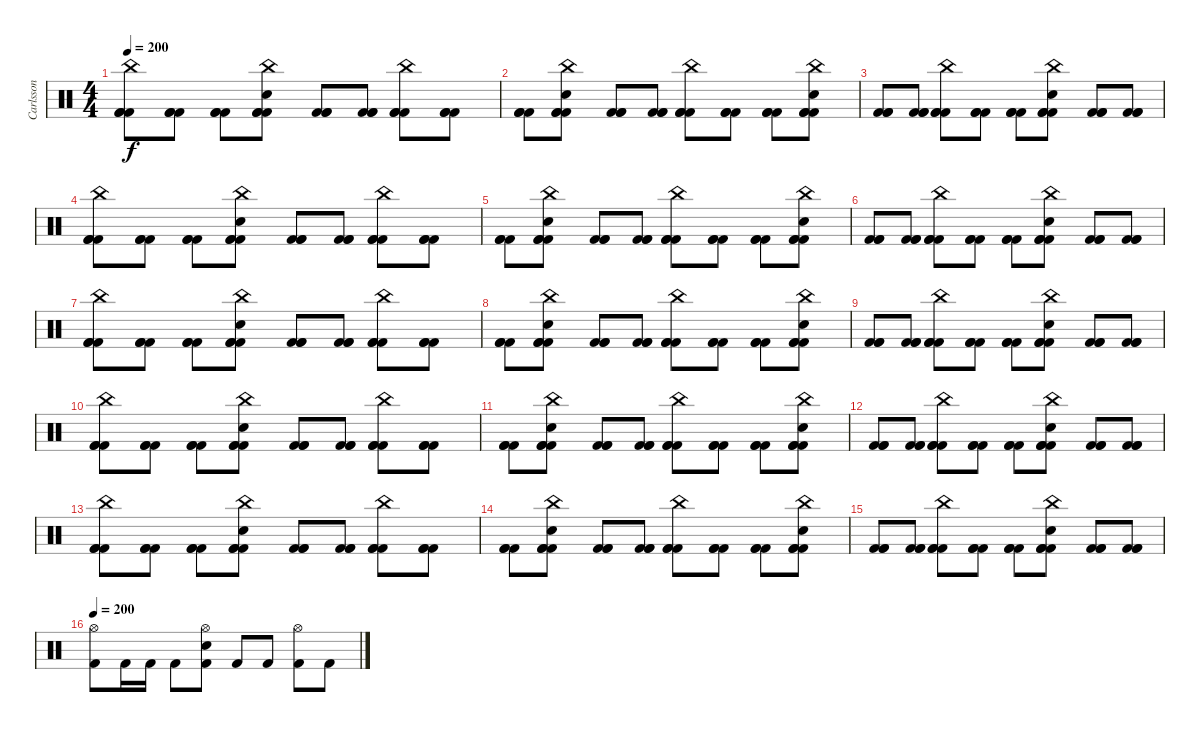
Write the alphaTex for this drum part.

\track ("Carlsson" "Carlsson") {instrument percussion}
\staff {score}
\articulation defaults
\ts (4 4)
\tempo 200
\clef neutral
\ks c
("China (hit)" "Kick (hit) 2" "Kick (hit) 2" "Kick (hit) 2").8{dy f} ("Kick (hit) 2" "Kick (hit) 2" "Kick (hit) 2").8 ("Kick (hit) 2" "Kick (hit) 2" "Kick (hit) 2").8 ("China (hit)" "Snare (hit) 2" "Kick (hit) 2" "Kick (hit) 2" "Kick (hit) 2").8 ("Kick (hit) 2" "Kick (hit) 2" "Kick (hit) 2").8 ("Kick (hit) 2" "Kick (hit) 2" "Kick (hit) 2").8 ("China (hit)" "Kick (hit) 2" "Kick (hit) 2" "Kick (hit) 2").8 ("Kick (hit) 2" "Kick (hit) 2" "Kick (hit) 2").8 |
("Kick (hit) 2" "Kick (hit) 2" "Kick (hit) 2").8 ("China (hit)" "Snare (hit) 2" "Kick (hit) 2" "Kick (hit) 2" "Kick (hit) 2").8 ("Kick (hit) 2" "Kick (hit) 2" "Kick (hit) 2").8 ("Kick (hit) 2" "Kick (hit) 2" "Kick (hit) 2").8 ("China (hit)" "Kick (hit) 2" "Kick (hit) 2" "Kick (hit) 2").8 ("Kick (hit) 2" "Kick (hit) 2" "Kick (hit) 2").8 ("Kick (hit) 2" "Kick (hit) 2" "Kick (hit) 2").8 ("China (hit)" "Snare (hit) 2" "Kick (hit) 2" "Kick (hit) 2" "Kick (hit) 2").8 |
("Kick (hit) 2" "Kick (hit) 2" "Kick (hit) 2").8 ("Kick (hit) 2" "Kick (hit) 2" "Kick (hit) 2").8 ("China (hit)" "Kick (hit) 2" "Kick (hit) 2" "Kick (hit) 2").8 ("Kick (hit) 2" "Kick (hit) 2" "Kick (hit) 2").8 ("Kick (hit) 2" "Kick (hit) 2" "Kick (hit) 2").8 ("China (hit)" "Snare (hit) 2" "Kick (hit) 2" "Kick (hit) 2" "Kick (hit) 2").8 ("Kick (hit) 2" "Kick (hit) 2" "Kick (hit) 2").8 ("Kick (hit) 2" "Kick (hit) 2" "Kick (hit) 2").8 |
("China (hit)" "Kick (hit) 2" "Kick (hit) 2" "Kick (hit) 2").8 ("Kick (hit) 2" "Kick (hit) 2" "Kick (hit) 2").8 ("Kick (hit) 2" "Kick (hit) 2" "Kick (hit) 2").8 ("China (hit)" "Snare (hit) 2" "Kick (hit) 2" "Kick (hit) 2" "Kick (hit) 2").8 ("Kick (hit) 2" "Kick (hit) 2" "Kick (hit) 2").8 ("Kick (hit) 2" "Kick (hit) 2" "Kick (hit) 2").8 ("China (hit)" "Kick (hit) 2" "Kick (hit) 2" "Kick (hit) 2").8 ("Kick (hit) 2" "Kick (hit) 2" "Kick (hit) 2").8 |
("Kick (hit) 2" "Kick (hit) 2" "Kick (hit) 2").8 ("China (hit)" "Snare (hit) 2" "Kick (hit) 2" "Kick (hit) 2" "Kick (hit) 2").8 ("Kick (hit) 2" "Kick (hit) 2" "Kick (hit) 2").8 ("Kick (hit) 2" "Kick (hit) 2" "Kick (hit) 2").8 ("China (hit)" "Kick (hit) 2" "Kick (hit) 2" "Kick (hit) 2").8 ("Kick (hit) 2" "Kick (hit) 2" "Kick (hit) 2").8 ("Kick (hit) 2" "Kick (hit) 2" "Kick (hit) 2").8 ("China (hit)" "Snare (hit) 2" "Kick (hit) 2" "Kick (hit) 2" "Kick (hit) 2").8 |
("Kick (hit) 2" "Kick (hit) 2" "Kick (hit) 2").8 ("Kick (hit) 2" "Kick (hit) 2" "Kick (hit) 2").8 ("China (hit)" "Kick (hit) 2" "Kick (hit) 2" "Kick (hit) 2").8 ("Kick (hit) 2" "Kick (hit) 2" "Kick (hit) 2").8 ("Kick (hit) 2" "Kick (hit) 2" "Kick (hit) 2").8 ("China (hit)" "Snare (hit) 2" "Kick (hit) 2" "Kick (hit) 2" "Kick (hit) 2").8 ("Kick (hit) 2" "Kick (hit) 2" "Kick (hit) 2").8 ("Kick (hit) 2" "Kick (hit) 2" "Kick (hit) 2").8 |
("China (hit)" "Kick (hit) 2" "Kick (hit) 2" "Kick (hit) 2").8 ("Kick (hit) 2" "Kick (hit) 2" "Kick (hit) 2").8 ("Kick (hit) 2" "Kick (hit) 2" "Kick (hit) 2").8 ("China (hit)" "Snare (hit) 2" "Kick (hit) 2" "Kick (hit) 2" "Kick (hit) 2").8 ("Kick (hit) 2" "Kick (hit) 2" "Kick (hit) 2").8 ("Kick (hit) 2" "Kick (hit) 2" "Kick (hit) 2").8 ("China (hit)" "Kick (hit) 2" "Kick (hit) 2" "Kick (hit) 2").8 ("Kick (hit) 2" "Kick (hit) 2" "Kick (hit) 2").8 |
("Kick (hit) 2" "Kick (hit) 2" "Kick (hit) 2").8 ("China (hit)" "Snare (hit) 2" "Kick (hit) 2" "Kick (hit) 2" "Kick (hit) 2").8 ("Kick (hit) 2" "Kick (hit) 2" "Kick (hit) 2").8 ("Kick (hit) 2" "Kick (hit) 2" "Kick (hit) 2").8 ("China (hit)" "Kick (hit) 2" "Kick (hit) 2" "Kick (hit) 2").8 ("Kick (hit) 2" "Kick (hit) 2" "Kick (hit) 2").8 ("Kick (hit) 2" "Kick (hit) 2" "Kick (hit) 2").8 ("China (hit)" "Snare (hit) 2" "Kick (hit) 2" "Kick (hit) 2" "Kick (hit) 2").8 |
("Kick (hit) 2" "Kick (hit) 2" "Kick (hit) 2").8 ("Kick (hit) 2" "Kick (hit) 2" "Kick (hit) 2").8 ("China (hit)" "Kick (hit) 2" "Kick (hit) 2" "Kick (hit) 2").8 ("Kick (hit) 2" "Kick (hit) 2" "Kick (hit) 2").8 ("Kick (hit) 2" "Kick (hit) 2" "Kick (hit) 2").8 ("China (hit)" "Snare (hit) 2" "Kick (hit) 2" "Kick (hit) 2" "Kick (hit) 2").8 ("Kick (hit) 2" "Kick (hit) 2" "Kick (hit) 2").8 ("Kick (hit) 2" "Kick (hit) 2" "Kick (hit) 2").8 |
("China (hit)" "Kick (hit) 2" "Kick (hit) 2" "Kick (hit) 2").8 ("Kick (hit) 2" "Kick (hit) 2" "Kick (hit) 2").8 ("Kick (hit) 2" "Kick (hit) 2" "Kick (hit) 2").8 ("China (hit)" "Snare (hit) 2" "Kick (hit) 2" "Kick (hit) 2" "Kick (hit) 2").8 ("Kick (hit) 2" "Kick (hit) 2" "Kick (hit) 2").8 ("Kick (hit) 2" "Kick (hit) 2" "Kick (hit) 2").8 ("China (hit)" "Kick (hit) 2" "Kick (hit) 2" "Kick (hit) 2").8 ("Kick (hit) 2" "Kick (hit) 2" "Kick (hit) 2").8 |
("Kick (hit) 2" "Kick (hit) 2" "Kick (hit) 2").8 ("China (hit)" "Snare (hit) 2" "Kick (hit) 2" "Kick (hit) 2" "Kick (hit) 2").8 ("Kick (hit) 2" "Kick (hit) 2" "Kick (hit) 2").8 ("Kick (hit) 2" "Kick (hit) 2" "Kick (hit) 2").8 ("China (hit)" "Kick (hit) 2" "Kick (hit) 2" "Kick (hit) 2").8 ("Kick (hit) 2" "Kick (hit) 2" "Kick (hit) 2").8 ("Kick (hit) 2" "Kick (hit) 2" "Kick (hit) 2").8 ("China (hit)" "Snare (hit) 2" "Kick (hit) 2" "Kick (hit) 2" "Kick (hit) 2").8 |
("Kick (hit) 2" "Kick (hit) 2" "Kick (hit) 2").8 ("Kick (hit) 2" "Kick (hit) 2" "Kick (hit) 2").8 ("China (hit)" "Kick (hit) 2" "Kick (hit) 2" "Kick (hit) 2").8 ("Kick (hit) 2" "Kick (hit) 2" "Kick (hit) 2").8 ("Kick (hit) 2" "Kick (hit) 2" "Kick (hit) 2").8 ("China (hit)" "Snare (hit) 2" "Kick (hit) 2" "Kick (hit) 2" "Kick (hit) 2").8 ("Kick (hit) 2" "Kick (hit) 2" "Kick (hit) 2").8 ("Kick (hit) 2" "Kick (hit) 2" "Kick (hit) 2").8 |
("China (hit)" "Kick (hit) 2" "Kick (hit) 2" "Kick (hit) 2").8 ("Kick (hit) 2" "Kick (hit) 2" "Kick (hit) 2").8 ("Kick (hit) 2" "Kick (hit) 2" "Kick (hit) 2").8 ("China (hit)" "Snare (hit) 2" "Kick (hit) 2" "Kick (hit) 2" "Kick (hit) 2").8 ("Kick (hit) 2" "Kick (hit) 2" "Kick (hit) 2").8 ("Kick (hit) 2" "Kick (hit) 2" "Kick (hit) 2").8 ("China (hit)" "Kick (hit) 2" "Kick (hit) 2" "Kick (hit) 2").8 ("Kick (hit) 2" "Kick (hit) 2" "Kick (hit) 2").8 |
("Kick (hit) 2" "Kick (hit) 2" "Kick (hit) 2").8 ("China (hit)" "Snare (hit) 2" "Kick (hit) 2" "Kick (hit) 2" "Kick (hit) 2").8 ("Kick (hit) 2" "Kick (hit) 2" "Kick (hit) 2").8 ("Kick (hit) 2" "Kick (hit) 2" "Kick (hit) 2").8 ("China (hit)" "Kick (hit) 2" "Kick (hit) 2" "Kick (hit) 2").8 ("Kick (hit) 2" "Kick (hit) 2" "Kick (hit) 2").8 ("Kick (hit) 2" "Kick (hit) 2" "Kick (hit) 2").8 ("China (hit)" "Snare (hit) 2" "Kick (hit) 2" "Kick (hit) 2" "Kick (hit) 2").8 |
("Kick (hit) 2" "Kick (hit) 2" "Kick (hit) 2").8 ("Kick (hit) 2" "Kick (hit) 2" "Kick (hit) 2").8 ("China (hit)" "Kick (hit) 2" "Kick (hit) 2" "Kick (hit) 2").8 ("Kick (hit) 2" "Kick (hit) 2" "Kick (hit) 2").8 ("Kick (hit) 2" "Kick (hit) 2" "Kick (hit) 2").8 ("China (hit)" "Snare (hit) 2" "Kick (hit) 2" "Kick (hit) 2" "Kick (hit) 2").8 ("Kick (hit) 2" "Kick (hit) 2" "Kick (hit) 2").8 ("Kick (hit) 2" "Kick (hit) 2" "Kick (hit) 2").8 |
\tempo 200
("Hi-Hat (open)" "Kick (hit) 2").8 "Kick (hit) 2".16 "Kick (hit) 2".16 "Kick (hit) 2".8 ("Hi-Hat (open)" "Snare (hit) 2" "Kick (hit) 2").8 "Kick (hit) 2".8 "Kick (hit) 2".8 ("Hi-Hat (open)" "Kick (hit) 2").8 "Kick (hit) 2".8
